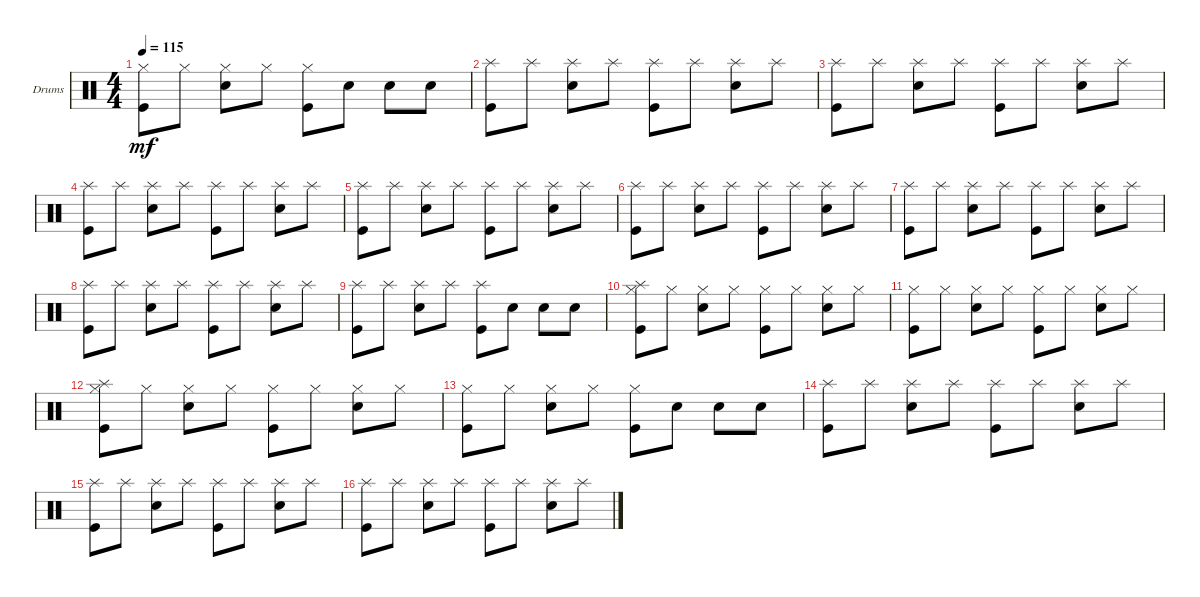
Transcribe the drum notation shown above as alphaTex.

\defaultSystemsLayout 4
\bracketExtendMode groupsimilarinstruments
\firstSystemTrackNameOrientation horizontal
\otherSystemsTrackNameOrientation horizontal
\track ("Drumkit" "Drums") {instrument percussion}
\staff {score}
\articulation defaults
\ts (4 4)
\tempo 115
\clef neutral
\ks c
("Kick (hit)" "Hi-Hat (closed)").8{dy mf} "Hi-Hat (closed)".8 ("Snare (hit) 2" "Hi-Hat (closed)").8 "Hi-Hat (closed)".8 ("Kick (hit)" "Hi-Hat (closed)").8 "Snare (hit) 2".8 "Snare (hit) 2".8 "Snare (hit) 2".8 |
("Kick (hit)" "Splash (hit)").8 "Splash (hit)".8 ("Snare (hit) 2" "Splash (hit)").8 "Splash (hit)".8 ("Kick (hit)" "Splash (hit)").8 "Splash (hit)".8 ("Snare (hit) 2" "Splash (hit)").8 "Splash (hit)".8 |
("Kick (hit)" "Splash (hit)").8 "Splash (hit)".8 ("Snare (hit) 2" "Splash (hit)").8 "Splash (hit)".8 ("Kick (hit)" "Splash (hit)").8 "Splash (hit)".8 ("Snare (hit) 2" "Splash (hit)").8 "Splash (hit)".8 |
("Kick (hit)" "Splash (hit)").8 "Splash (hit)".8 ("Snare (hit) 2" "Splash (hit)").8 "Splash (hit)".8 ("Kick (hit)" "Splash (hit)").8 "Splash (hit)".8 ("Snare (hit) 2" "Splash (hit)").8 "Splash (hit)".8 |
("Kick (hit)" "Splash (hit)").8 "Splash (hit)".8 ("Snare (hit) 2" "Splash (hit)").8 "Splash (hit)".8 ("Kick (hit)" "Splash (hit)").8 "Splash (hit)".8 ("Snare (hit) 2" "Splash (hit)").8 "Splash (hit)".8 |
("Kick (hit)" "Splash (hit)").8 "Splash (hit)".8 ("Snare (hit) 2" "Splash (hit)").8 "Splash (hit)".8 ("Kick (hit)" "Splash (hit)").8 "Splash (hit)".8 ("Snare (hit) 2" "Splash (hit)").8 "Splash (hit)".8 |
("Kick (hit)" "Splash (hit)").8 "Splash (hit)".8 ("Snare (hit) 2" "Splash (hit)").8 "Splash (hit)".8 ("Kick (hit)" "Splash (hit)").8 "Splash (hit)".8 ("Snare (hit) 2" "Splash (hit)").8 "Splash (hit)".8 |
("Kick (hit)" "Splash (hit)").8 "Splash (hit)".8 ("Snare (hit) 2" "Splash (hit)").8 "Splash (hit)".8 ("Kick (hit)" "Splash (hit)").8 "Splash (hit)".8 ("Snare (hit) 2" "Splash (hit)").8 "Splash (hit)".8 |
("Kick (hit)" "Splash (hit)").8 "Splash (hit)".8 ("Snare (hit) 2" "Splash (hit)").8 "Splash (hit)".8 ("Kick (hit)" "Splash (hit)").8 "Snare (hit) 2".8 "Snare (hit) 2".8 "Snare (hit) 2".8 |
("Kick (hit)" "Hi-Hat (closed)" "Splash (hit)").8 "Hi-Hat (closed)".8 ("Snare (hit) 2" "Hi-Hat (closed)").8 "Hi-Hat (closed)".8 ("Kick (hit)" "Hi-Hat (closed)").8 "Hi-Hat (closed)".8 ("Snare (hit) 2" "Hi-Hat (closed)").8 "Hi-Hat (closed)".8 |
("Kick (hit)" "Hi-Hat (closed)").8 "Hi-Hat (closed)".8 ("Snare (hit) 2" "Hi-Hat (closed)").8 "Hi-Hat (closed)".8 ("Kick (hit)" "Hi-Hat (closed)").8 "Hi-Hat (closed)".8 ("Snare (hit) 2" "Hi-Hat (closed)").8 "Hi-Hat (closed)".8 |
("Kick (hit)" "Hi-Hat (closed)" "Splash (hit)").8 "Hi-Hat (closed)".8 ("Snare (hit) 2" "Hi-Hat (closed)").8 "Hi-Hat (closed)".8 ("Kick (hit)" "Hi-Hat (closed)").8 "Hi-Hat (closed)".8 ("Snare (hit) 2" "Hi-Hat (closed)").8 "Hi-Hat (closed)".8 |
("Kick (hit)" "Hi-Hat (closed)").8 "Hi-Hat (closed)".8 ("Snare (hit) 2" "Hi-Hat (closed)").8 "Hi-Hat (closed)".8 ("Kick (hit)" "Hi-Hat (closed)").8 "Snare (hit) 2".8 "Snare (hit) 2".8 "Snare (hit) 2".8 |
("Kick (hit)" "Splash (hit)").8 "Splash (hit)".8 ("Snare (hit) 2" "Splash (hit)").8 "Splash (hit)".8 ("Kick (hit)" "Splash (hit)").8 "Splash (hit)".8 ("Snare (hit) 2" "Splash (hit)").8 "Splash (hit)".8 |
("Kick (hit)" "Splash (hit)").8 "Splash (hit)".8 ("Snare (hit) 2" "Splash (hit)").8 "Splash (hit)".8 ("Kick (hit)" "Splash (hit)").8 "Splash (hit)".8 ("Snare (hit) 2" "Splash (hit)").8 "Splash (hit)".8 |
("Kick (hit)" "Splash (hit)").8 "Splash (hit)".8 ("Snare (hit) 2" "Splash (hit)").8 "Splash (hit)".8 ("Kick (hit)" "Splash (hit)").8 "Splash (hit)".8 ("Snare (hit) 2" "Splash (hit)").8 "Splash (hit)".8
